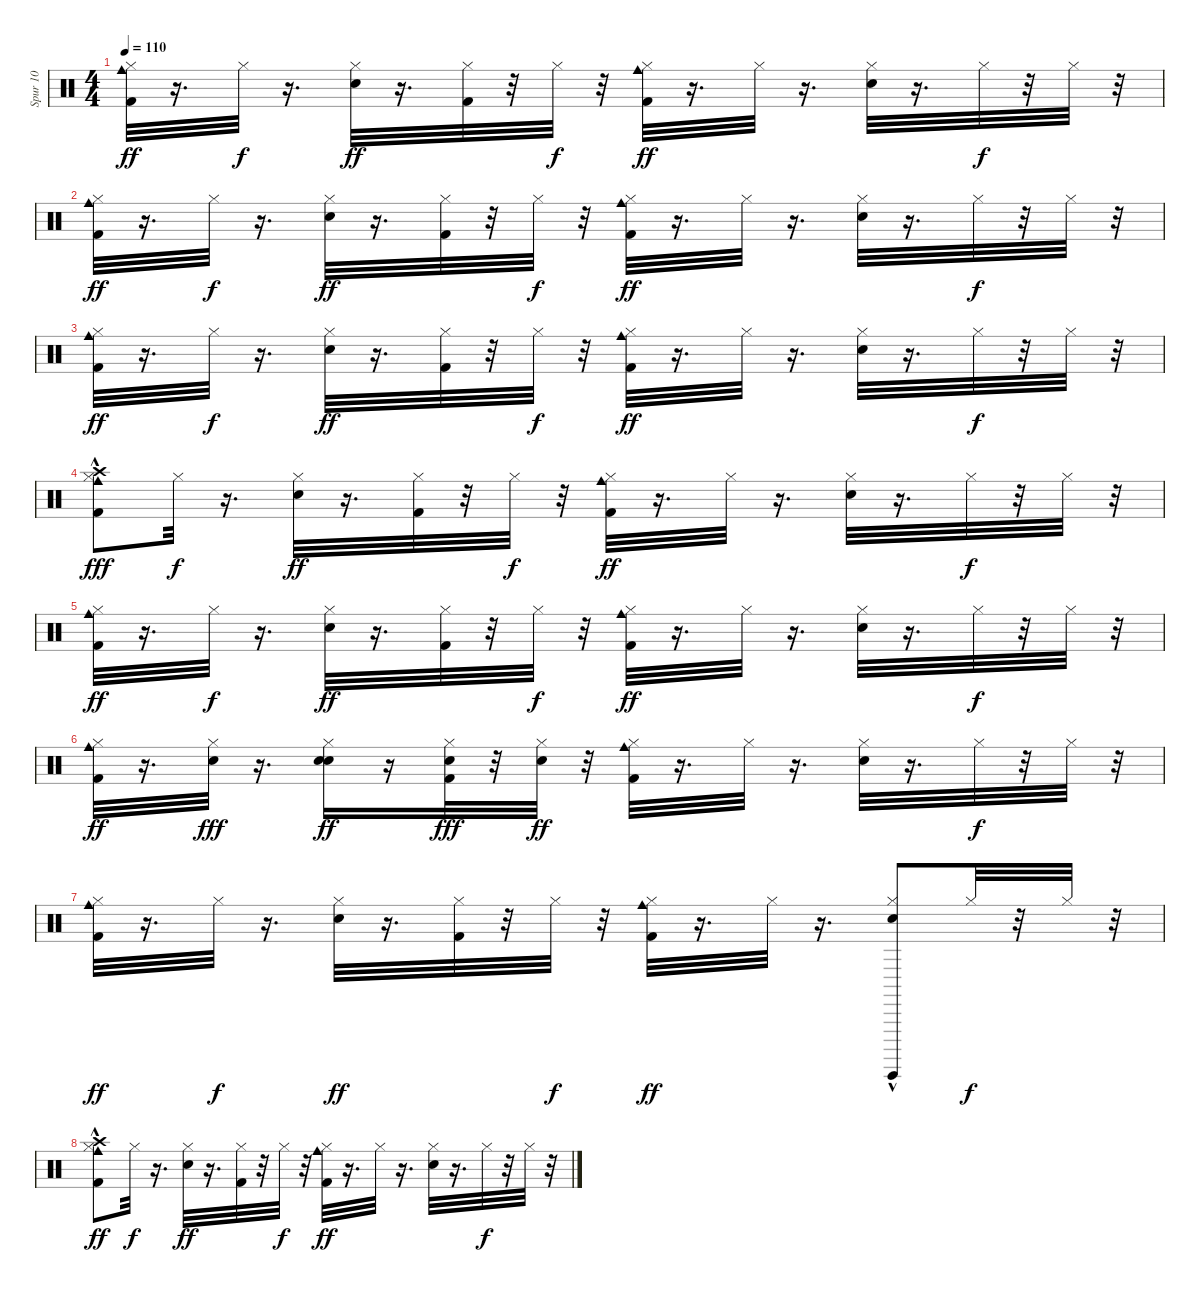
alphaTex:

\track ("Spur 10" "Spur 10") {instrument percussion}
\staff {score}
\articulation defaults
\ts (4 4)
\tempo 110
\clef neutral
\ks c
("Kick (hit) 2" "Cowbell medium (hit)" "Hi-Hat (closed)").32{dy ff} r.16{d} "Hi-Hat (closed)".32{dy f} r.16{d} ("Snare (hit) 2" "Hi-Hat (closed)").32{dy ff} r.16{d} ("Kick (hit) 2" "Hi-Hat (closed)").32 r.32 "Hi-Hat (closed)".32{dy f} r.32 ("Kick (hit) 2" "Cowbell medium (hit)" "Hi-Hat (closed)").32{dy ff} r.16{d} "Hi-Hat (closed)".32 r.16{d} ("Snare (hit) 2" "Hi-Hat (closed)").32 r.16{d} "Hi-Hat (closed)".32{dy f} r.32 "Hi-Hat (closed)".32 r.32 |
("Kick (hit) 2" "Cowbell medium (hit)" "Hi-Hat (closed)").32{dy ff} r.16{d} "Hi-Hat (closed)".32{dy f} r.16{d} ("Snare (hit) 2" "Hi-Hat (closed)").32{dy ff} r.16{d} ("Kick (hit) 2" "Hi-Hat (closed)").32 r.32 "Hi-Hat (closed)".32{dy f} r.32 ("Kick (hit) 2" "Cowbell medium (hit)" "Hi-Hat (closed)").32{dy ff} r.16{d} "Hi-Hat (closed)".32 r.16{d} ("Snare (hit) 2" "Hi-Hat (closed)").32 r.16{d} "Hi-Hat (closed)".32{dy f} r.32 "Hi-Hat (closed)".32 r.32 |
("Hi-Hat (closed)" "Kick (hit) 2" "Cowbell medium (hit)").32{dy ff} r.16{d} "Hi-Hat (closed)".32{dy f} r.16{d} ("Snare (hit) 2" "Hi-Hat (closed)").32{dy ff} r.16{d} ("Kick (hit) 2" "Hi-Hat (closed)").32 r.32 "Hi-Hat (closed)".32{dy f} r.32 ("Kick (hit) 2" "Cowbell medium (hit)" "Hi-Hat (closed)").32{dy ff} r.16{d} "Hi-Hat (closed)".32 r.16{d} ("Snare (hit) 2" "Hi-Hat (closed)").32 r.16{d} "Hi-Hat (closed)".32{dy f} r.32 "Hi-Hat (closed)".32 r.32 |
("Kick (hit) 2" "Cowbell medium (hit)" "Hi-Hat (closed)" "Crash high (hit)"{hac}).8{dy fff} "Hi-Hat (closed)".32{dy f} r.16{d} ("Snare (hit) 2" "Hi-Hat (closed)").32{dy ff} r.16{d} ("Kick (hit) 2" "Hi-Hat (closed)").32 r.32 "Hi-Hat (closed)".32{dy f} r.32 ("Kick (hit) 2" "Cowbell medium (hit)" "Hi-Hat (closed)").32{dy ff} r.16{d} "Hi-Hat (closed)".32 r.16{d} ("Snare (hit) 2" "Hi-Hat (closed)").32 r.16{d} "Hi-Hat (closed)".32{dy f} r.32 "Hi-Hat (closed)".32 r.32 |
("Kick (hit) 2" "Cowbell medium (hit)" "Hi-Hat (closed)").32{dy ff} r.16{d} "Hi-Hat (closed)".32{dy f} r.16{d} ("Snare (hit) 2" "Hi-Hat (closed)").32{dy ff} r.16{d} ("Kick (hit) 2" "Hi-Hat (closed)").32 r.32 "Hi-Hat (closed)".32{dy f} r.32 ("Kick (hit) 2" "Cowbell medium (hit)" "Hi-Hat (closed)").32{dy ff} r.16{d} "Hi-Hat (closed)".32 r.16{d} ("Snare (hit) 2" "Hi-Hat (closed)").32 r.16{d} "Hi-Hat (closed)".32{dy f} r.32 "Hi-Hat (closed)".32 r.32 |
("Kick (hit) 2" "Cowbell medium (hit)" "Hi-Hat (closed)").32{dy ff} r.16{d} ("Hi-Hat (closed)" "Hand Clap (hit)").32{dy fff} r.16{d} ("Snare (hit) 2" "Hi-Hat (closed)" "Hand Clap (hit)").16{dy ff} r.16 ("Kick (hit) 2" "Hi-Hat (closed)" "Hand Clap (hit)").32{dy fff} r.32 ("Hand Clap (hit)" "Hi-Hat (closed)").32{dy ff} r.32 ("Kick (hit) 2" "Cowbell medium (hit)" "Hi-Hat (closed)").32 r.16{d} "Hi-Hat (closed)".32 r.16{d} ("Snare (hit) 2" "Hi-Hat (closed)").32 r.16{d} "Hi-Hat (closed)".32{dy f} r.32 "Hi-Hat (closed)".32 r.32 |
("Kick (hit) 2" "Cowbell medium (hit)" "Hi-Hat (closed)").32{dy ff} r.16{d} "Hi-Hat (closed)".32{dy f} r.16{d} ("Snare (hit) 2" "Hi-Hat (closed)").32{dy ff} r.16{d} ("Kick (hit) 2" "Hi-Hat (closed)").32 r.32 "Hi-Hat (closed)".32{dy f} r.32 ("Kick (hit) 2" "Cowbell medium (hit)" "Hi-Hat (closed)").32{dy ff} r.16{d} "Hi-Hat (closed)".32 r.16{d} ("Snare (hit) 2" "Hi-Hat (closed)" "Guiro (hit)"{hac}).8 "Hi-Hat (closed)".32{dy f} r.32 "Hi-Hat (closed)".32 r.32 |
("Kick (hit) 2" "Cowbell medium (hit)" "Crash high (hit)"{hac} "Hi-Hat (closed)").8{dy ff} "Hi-Hat (closed)".32{dy f} r.16{d} ("Snare (hit) 2" "Hi-Hat (closed)").32{dy ff} r.16{d} ("Kick (hit) 2" "Hi-Hat (closed)").32 r.32 "Hi-Hat (closed)".32{dy f} r.32 ("Kick (hit) 2" "Cowbell medium (hit)" "Hi-Hat (closed)").32{dy ff} r.16{d} "Hi-Hat (closed)".32 r.16{d} ("Snare (hit) 2" "Hi-Hat (closed)").32 r.16{d} "Hi-Hat (closed)".32{dy f} r.32 "Hi-Hat (closed)".32 r.32
